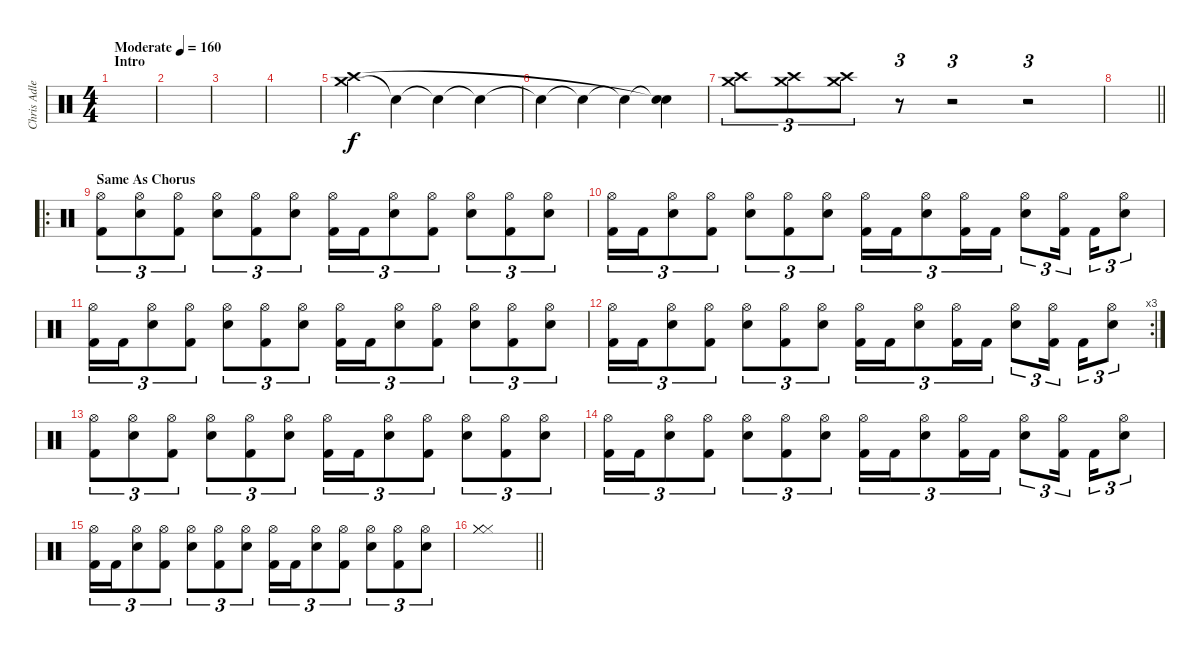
\track ("Chris Adler" "Chris Adle") {instrument percussion}
\staff {score}
\articulation defaults
\ts (4 4)
\section ("" "Intro")
\tempo (160 "Moderate")
\clef neutral
\ks c
|
|
|
|
("Crash medium (hit)" "Crash high (hit)").4 "Snare (hit)"{t}.4 "Snare (hit)"{t}.4 "Snare (hit)"{t}.4 |
"Snare (hit)"{t}.4 "Snare (hit)"{t}.4 "Snare (hit)"{t}.4 ("Snare (hit)"{t} "Snare (hit)"{t}).4 |
("Crash medium (hit)" "Crash high (hit)").8{tu (3 2)} ("Crash medium (hit)" "Crash high (hit)").8{tu (3 2)} ("Crash medium (hit)" "Crash high (hit)").8{tu (3 2)} r.8{tu (3 2)} r.2{tu (3 2)} r.2{tu (3 2)} |
\barLineRight lightlight
|
\ro
\section ("" "Same As Chorus")
("Hi-Hat (open)" "Kick (hit) 2").8{tu (3 2)} ("Hi-Hat (open)" "Snare (hit) 2").8{tu (3 2)} ("Hi-Hat (open)" "Kick (hit) 2").8{tu (3 2)} ("Hi-Hat (open)" "Snare (hit) 2").8{tu (3 2)} ("Hi-Hat (open)" "Kick (hit) 2").8{tu (3 2)} ("Hi-Hat (open)" "Snare (hit) 2").8{tu (3 2)} ("Hi-Hat (open)" "Kick (hit) 2").16{tu (3 2)} "Kick (hit) 2".16{tu (3 2)} ("Hi-Hat (open)" "Snare (hit) 2").8{tu (3 2)} ("Hi-Hat (open)" "Kick (hit) 2").8{tu (3 2)} ("Hi-Hat (open)" "Snare (hit) 2").8{tu (3 2)} ("Hi-Hat (open)" "Kick (hit) 2").8{tu (3 2)} ("Hi-Hat (open)" "Snare (hit) 2").8{tu (3 2)} |
("Hi-Hat (open)" "Kick (hit) 2").16{tu (3 2)} "Kick (hit) 2".16{tu (3 2)} ("Hi-Hat (open)" "Snare (hit) 2").8{tu (3 2)} ("Hi-Hat (open)" "Kick (hit) 2").8{tu (3 2)} ("Hi-Hat (open)" "Snare (hit) 2").8{tu (3 2)} ("Hi-Hat (open)" "Kick (hit) 2").8{tu (3 2)} ("Hi-Hat (open)" "Snare (hit) 2").8{tu (3 2)} ("Hi-Hat (open)" "Kick (hit) 2").16{tu (3 2)} "Kick (hit) 2".16{tu (3 2)} ("Hi-Hat (open)" "Snare (hit) 2").8{tu (3 2)} ("Hi-Hat (open)" "Kick (hit) 2").16{tu (3 2)} "Kick (hit) 2".16{tu (3 2)} ("Hi-Hat (open)" "Snare (hit) 2").8{tu (3 2)} ("Hi-Hat (open)" "Kick (hit) 2").16{tu (3 2) beam splitsecondary} "Kick (hit) 2".16{tu (3 2)} ("Hi-Hat (open)" "Snare (hit) 2").8{tu (3 2)} |
("Hi-Hat (open)" "Kick (hit) 2").16{tu (3 2)} "Kick (hit) 2".16{tu (3 2)} ("Hi-Hat (open)" "Snare (hit) 2").8{tu (3 2)} ("Hi-Hat (open)" "Kick (hit) 2").8{tu (3 2)} ("Hi-Hat (open)" "Snare (hit) 2").8{tu (3 2)} ("Hi-Hat (open)" "Kick (hit) 2").8{tu (3 2)} ("Hi-Hat (open)" "Snare (hit) 2").8{tu (3 2)} ("Hi-Hat (open)" "Kick (hit) 2").16{tu (3 2)} "Kick (hit) 2".16{tu (3 2)} ("Hi-Hat (open)" "Snare (hit) 2").8{tu (3 2)} ("Hi-Hat (open)" "Kick (hit) 2").8{tu (3 2)} ("Hi-Hat (open)" "Snare (hit) 2").8{tu (3 2)} ("Hi-Hat (open)" "Kick (hit) 2").8{tu (3 2)} ("Hi-Hat (open)" "Snare (hit) 2").8{tu (3 2)} |
\rc 3
("Hi-Hat (open)" "Kick (hit) 2").16{tu (3 2)} "Kick (hit) 2".16{tu (3 2)} ("Hi-Hat (open)" "Snare (hit) 2").8{tu (3 2)} ("Hi-Hat (open)" "Kick (hit) 2").8{tu (3 2)} ("Hi-Hat (open)" "Snare (hit) 2").8{tu (3 2)} ("Hi-Hat (open)" "Kick (hit) 2").8{tu (3 2)} ("Hi-Hat (open)" "Snare (hit) 2").8{tu (3 2)} ("Hi-Hat (open)" "Kick (hit) 2").16{tu (3 2)} "Kick (hit) 2".16{tu (3 2)} ("Hi-Hat (open)" "Snare (hit) 2").8{tu (3 2)} ("Hi-Hat (open)" "Kick (hit) 2").16{tu (3 2)} "Kick (hit) 2".16{tu (3 2)} ("Hi-Hat (open)" "Snare (hit) 2").8{tu (3 2)} ("Hi-Hat (open)" "Kick (hit) 2").16{tu (3 2) beam splitsecondary} "Kick (hit) 2".16{tu (3 2)} ("Hi-Hat (open)" "Snare (hit) 2").8{tu (3 2)} |
("Hi-Hat (open)" "Kick (hit) 2").8{tu (3 2)} ("Hi-Hat (open)" "Snare (hit) 2").8{tu (3 2)} ("Hi-Hat (open)" "Kick (hit) 2").8{tu (3 2)} ("Hi-Hat (open)" "Snare (hit) 2").8{tu (3 2)} ("Hi-Hat (open)" "Kick (hit) 2").8{tu (3 2)} ("Hi-Hat (open)" "Snare (hit) 2").8{tu (3 2)} ("Hi-Hat (open)" "Kick (hit) 2").16{tu (3 2)} "Kick (hit) 2".16{tu (3 2)} ("Hi-Hat (open)" "Snare (hit) 2").8{tu (3 2)} ("Hi-Hat (open)" "Kick (hit) 2").8{tu (3 2)} ("Hi-Hat (open)" "Snare (hit) 2").8{tu (3 2)} ("Hi-Hat (open)" "Kick (hit) 2").8{tu (3 2)} ("Hi-Hat (open)" "Snare (hit) 2").8{tu (3 2)} |
("Hi-Hat (open)" "Kick (hit) 2").16{tu (3 2)} "Kick (hit) 2".16{tu (3 2)} ("Hi-Hat (open)" "Snare (hit) 2").8{tu (3 2)} ("Hi-Hat (open)" "Kick (hit) 2").8{tu (3 2)} ("Hi-Hat (open)" "Snare (hit) 2").8{tu (3 2)} ("Hi-Hat (open)" "Kick (hit) 2").8{tu (3 2)} ("Hi-Hat (open)" "Snare (hit) 2").8{tu (3 2)} ("Hi-Hat (open)" "Kick (hit) 2").16{tu (3 2)} "Kick (hit) 2".16{tu (3 2)} ("Hi-Hat (open)" "Snare (hit) 2").8{tu (3 2)} ("Hi-Hat (open)" "Kick (hit) 2").16{tu (3 2)} "Kick (hit) 2".16{tu (3 2)} ("Hi-Hat (open)" "Snare (hit) 2").8{tu (3 2)} ("Hi-Hat (open)" "Kick (hit) 2").16{tu (3 2) beam splitsecondary} "Kick (hit) 2".16{tu (3 2)} ("Hi-Hat (open)" "Snare (hit) 2").8{tu (3 2)} |
("Hi-Hat (open)" "Kick (hit) 2").16{tu (3 2)} "Kick (hit) 2".16{tu (3 2)} ("Hi-Hat (open)" "Snare (hit) 2").8{tu (3 2)} ("Hi-Hat (open)" "Kick (hit) 2").8{tu (3 2)} ("Hi-Hat (open)" "Snare (hit) 2").8{tu (3 2)} ("Hi-Hat (open)" "Kick (hit) 2").8{tu (3 2)} ("Hi-Hat (open)" "Snare (hit) 2").8{tu (3 2)} ("Hi-Hat (open)" "Kick (hit) 2").16{tu (3 2)} "Kick (hit) 2".16{tu (3 2)} ("Hi-Hat (open)" "Snare (hit) 2").8{tu (3 2)} ("Hi-Hat (open)" "Kick (hit) 2").8{tu (3 2)} ("Hi-Hat (open)" "Snare (hit) 2").8{tu (3 2)} ("Hi-Hat (open)" "Kick (hit) 2").8{tu (3 2)} ("Hi-Hat (open)" "Snare (hit) 2").8{tu (3 2)} |
\barLineRight lightlight
("Hi-Hat (closed)" "Hi-Hat (closed)" "Hi-Hat (closed)").1
